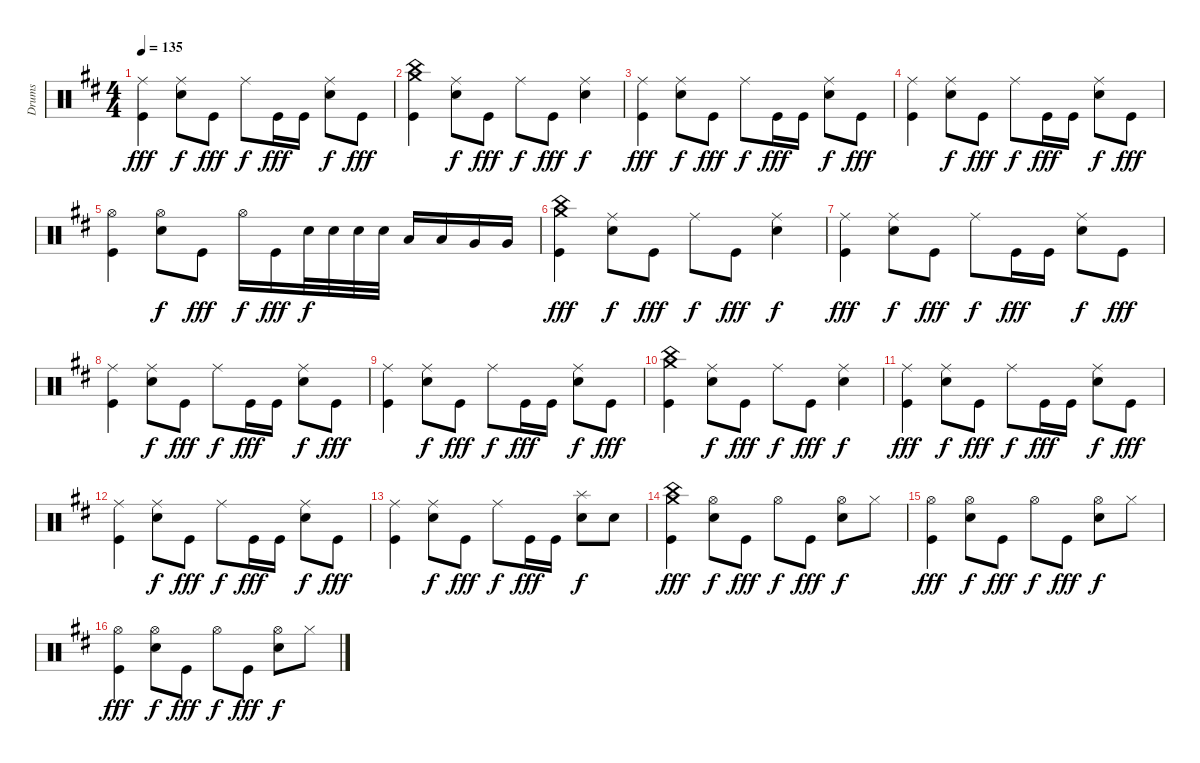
\track ("Drums" "Drums") {instrument percussion}
\staff {score}
\articulation defaults
\ts (4 4)
\tempo 135
\clef neutral
\ks d
("Ride (middle)" "Kick (hit)").4{dy fff} ("Ride (middle)" "Snare (hit) 2").8{dy f} "Kick (hit)".8{dy fff} "Ride (middle)".8{dy f} "Kick (hit)".16{dy fff} "Kick (hit)".16 ("Ride (middle)" "Snare (hit) 2").8{dy f} "Kick (hit)".8{dy fff} |
("Crash medium (hit)" "China (hit)" "Kick (hit)").4 ("Ride (middle)" "Snare (hit) 2").8{dy f} "Kick (hit)".8{dy fff} "Ride (middle)".8{dy f} "Kick (hit)".8{dy fff} ("Ride (middle)" "Snare (hit) 2").4{dy f} |
("Ride (middle)" "Kick (hit)").4{dy fff} ("Ride (middle)" "Snare (hit) 2").8{dy f} "Kick (hit)".8{dy fff} "Ride (middle)".8{dy f} "Kick (hit)".16{dy fff} "Kick (hit)".16 ("Ride (middle)" "Snare (hit) 2").8{dy f} "Kick (hit)".8{dy fff} |
("Ride (middle)" "Kick (hit)").4 ("Ride (middle)" "Snare (hit) 2").8{dy f} "Kick (hit)".8{dy fff} "Ride (middle)".8{dy f} "Kick (hit)".16{dy fff} "Kick (hit)".16 ("Ride (middle)" "Snare (hit) 2").8{dy f} "Kick (hit)".8{dy fff} |
("Hi-Hat (open)" "Kick (hit)").4 ("Hi-Hat (open)" "Snare (hit) 2").8{dy f} "Kick (hit)".8{dy fff} "Hi-Hat (open)".16{dy f} "Kick (hit)".16{dy fff} "Snare (hit) 2".32{dy f} "Snare (hit) 2".32 "Snare (hit) 2".32 "Snare (hit) 2".32 "Low Tom (hit)".16 "Low Tom (hit)".16 "Very Low Tom (hit)".16 "Very Low Tom (hit)".16 |
("Crash medium (hit)" "China (hit)" "Kick (hit)").4{dy fff} ("Ride (middle)" "Snare (hit) 2").8{dy f} "Kick (hit)".8{dy fff} "Ride (middle)".8{dy f} "Kick (hit)".8{dy fff} ("Ride (middle)" "Snare (hit) 2").4{dy f} |
("Ride (middle)" "Kick (hit)").4{dy fff} ("Ride (middle)" "Snare (hit) 2").8{dy f} "Kick (hit)".8{dy fff} "Ride (middle)".8{dy f} "Kick (hit)".16{dy fff} "Kick (hit)".16 ("Ride (middle)" "Snare (hit) 2").8{dy f} "Kick (hit)".8{dy fff} |
("Ride (middle)" "Kick (hit)").4 ("Ride (middle)" "Snare (hit) 2").8{dy f} "Kick (hit)".8{dy fff} "Ride (middle)".8{dy f} "Kick (hit)".16{dy fff} "Kick (hit)".16 ("Ride (middle)" "Snare (hit) 2").8{dy f} "Kick (hit)".8{dy fff} |
("Ride (middle)" "Kick (hit)").4 ("Ride (middle)" "Snare (hit) 2").8{dy f} "Kick (hit)".8{dy fff} "Ride (middle)".8{dy f} "Kick (hit)".16{dy fff} "Kick (hit)".16 ("Ride (middle)" "Snare (hit) 2").8{dy f} "Kick (hit)".8{dy fff} |
("Crash medium (hit)" "China (hit)" "Kick (hit)").4 ("Ride (middle)" "Snare (hit) 2").8{dy f} "Kick (hit)".8{dy fff} "Ride (middle)".8{dy f} "Kick (hit)".8{dy fff} ("Ride (middle)" "Snare (hit) 2").4{dy f} |
("Ride (middle)" "Kick (hit)").4{dy fff} ("Ride (middle)" "Snare (hit) 2").8{dy f} "Kick (hit)".8{dy fff} "Ride (middle)".8{dy f} "Kick (hit)".16{dy fff} "Kick (hit)".16 ("Ride (middle)" "Snare (hit) 2").8{dy f} "Kick (hit)".8{dy fff} |
("Ride (middle)" "Kick (hit)").4 ("Ride (middle)" "Snare (hit) 2").8{dy f} "Kick (hit)".8{dy fff} "Ride (middle)".8{dy f} "Kick (hit)".16{dy fff} "Kick (hit)".16 ("Ride (middle)" "Snare (hit) 2").8{dy f} "Kick (hit)".8{dy fff} |
("Ride (middle)" "Kick (hit)").4 ("Ride (middle)" "Snare (hit) 2").8{dy f} "Kick (hit)".8{dy fff} "Ride (middle)".8{dy f} "Kick (hit)".16{dy fff} "Kick (hit)".16 ("Splash (hit)" "Snare (hit) 2").8{dy f} "Snare (hit) 2".8 |
("China (hit)" "Crash medium (hit)" "Kick (hit)").4{dy fff volume 7} ("Hi-Hat (open)" "Snare (hit) 2").8{dy f} "Kick (hit)".8{dy fff} "Hi-Hat (open)".8{dy f} "Kick (hit)".8{dy fff} ("Hi-Hat (open)" "Snare (hit) 2").8{dy f} "Hi-Hat (closed)".8 |
("Hi-Hat (open)" "Kick (hit)").4{dy fff} ("Hi-Hat (open)" "Snare (hit) 2").8{dy f} "Kick (hit)".8{dy fff} "Hi-Hat (open)".8{dy f} "Kick (hit)".8{dy fff} ("Hi-Hat (open)" "Snare (hit) 2").8{dy f} "Hi-Hat (closed)".8 |
("Hi-Hat (open)" "Kick (hit)").4{dy fff} ("Hi-Hat (open)" "Snare (hit) 2").8{dy f} "Kick (hit)".8{dy fff} "Hi-Hat (open)".8{dy f} "Kick (hit)".8{dy fff} ("Hi-Hat (open)" "Snare (hit) 2").8{dy f} "Hi-Hat (closed)".8
